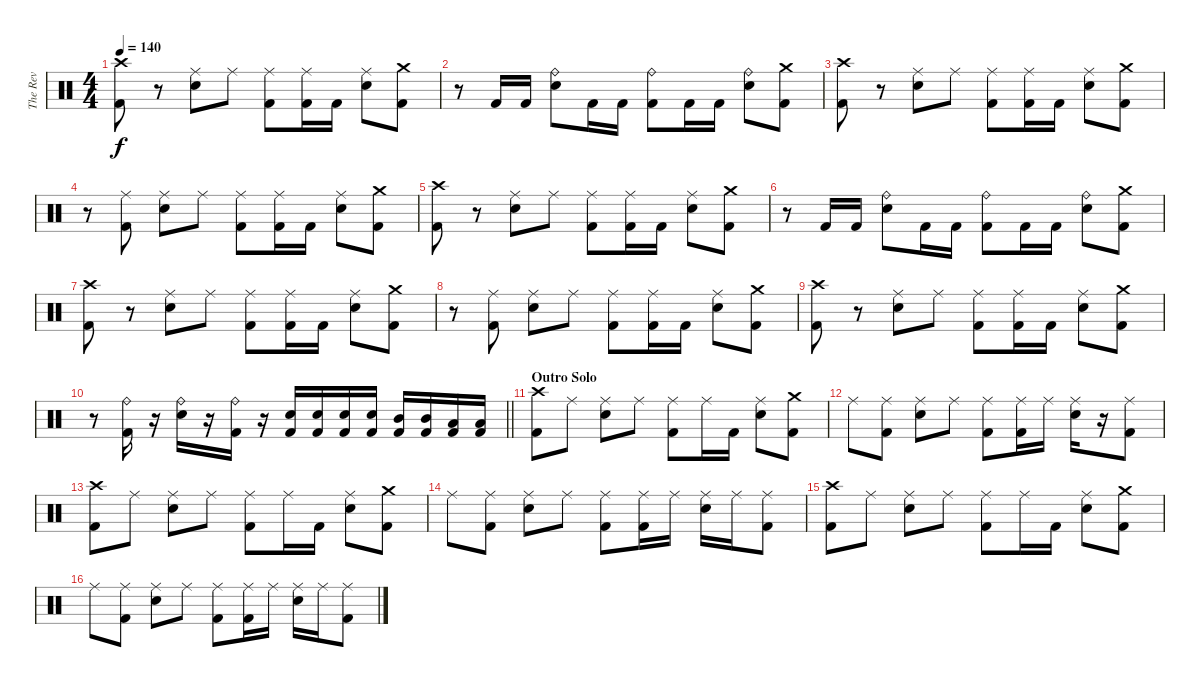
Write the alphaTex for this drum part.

\track ("The Rev" "The Rev") {instrument percussion}
\staff {score}
\articulation defaults
\ts (4 4)
\tempo 140
\clef neutral
\ks c
("Crash high (hit)" "Kick (hit) 2").8{dy f} r.8 ("Ride (middle)" "Electric Snare (hit)").8 "Ride (middle)".8 ("Ride (middle)" "Kick (hit) 2").8 ("Ride (middle)" "Kick (hit) 2").16 "Kick (hit) 2".16 ("Ride (middle)" "Electric Snare (hit)").8 ("Crash medium (hit)" "Kick (hit) 2").8 |
r.8 "Kick (hit) 2".16 "Kick (hit) 2".16 ("Ride (bell)" "Electric Snare (hit)").8 "Kick (hit) 2".16 "Kick (hit) 2".16 ("Ride (bell)" "Kick (hit) 2").8 "Kick (hit) 2".16 "Kick (hit) 2".16 ("Ride (bell)" "Electric Snare (hit)").8 ("Crash medium (hit)" "Kick (hit) 2").8 |
("Crash high (hit)" "Kick (hit) 2").8 r.8 ("Ride (middle)" "Electric Snare (hit)").8 "Ride (middle)".8 ("Ride (middle)" "Kick (hit) 2").8 ("Ride (middle)" "Kick (hit) 2").16 "Kick (hit) 2".16 ("Ride (middle)" "Electric Snare (hit)").8 ("Crash medium (hit)" "Kick (hit) 2").8 |
r.8 ("Ride (middle)" "Kick (hit) 2").8 ("Ride (middle)" "Electric Snare (hit)").8 "Ride (middle)".8 ("Ride (middle)" "Kick (hit) 2").8 ("Ride (middle)" "Kick (hit) 2").16 "Kick (hit) 2".16 ("Ride (middle)" "Electric Snare (hit)").8 ("Crash medium (hit)" "Kick (hit) 2").8 |
("Crash high (hit)" "Kick (hit) 2").8 r.8 ("Ride (middle)" "Electric Snare (hit)").8 "Ride (middle)".8 ("Ride (middle)" "Kick (hit) 2").8 ("Ride (middle)" "Kick (hit) 2").16 "Kick (hit) 2".16 ("Ride (middle)" "Electric Snare (hit)").8 ("Crash medium (hit)" "Kick (hit) 2").8 |
r.8 "Kick (hit) 2".16 "Kick (hit) 2".16 ("Ride (bell)" "Electric Snare (hit)").8 "Kick (hit) 2".16 "Kick (hit) 2".16 ("Ride (bell)" "Kick (hit) 2").8 "Kick (hit) 2".16 "Kick (hit) 2".16 ("Ride (bell)" "Electric Snare (hit)").8 ("Crash medium (hit)" "Kick (hit) 2").8 |
("Crash high (hit)" "Kick (hit) 2").8 r.8 ("Ride (middle)" "Electric Snare (hit)").8 "Ride (middle)".8 ("Ride (middle)" "Kick (hit) 2").8 ("Ride (middle)" "Kick (hit) 2").16 "Kick (hit) 2".16 ("Ride (middle)" "Electric Snare (hit)").8 ("Crash medium (hit)" "Kick (hit) 2").8 |
r.8 ("Ride (middle)" "Kick (hit) 2").8 ("Ride (middle)" "Electric Snare (hit)").8 "Ride (middle)".8 ("Ride (middle)" "Kick (hit) 2").8 ("Ride (middle)" "Kick (hit) 2").16 "Kick (hit) 2".16 ("Ride (middle)" "Electric Snare (hit)").8 ("Crash medium (hit)" "Kick (hit) 2").8 |
("Crash high (hit)" "Kick (hit) 2").8 r.8 ("Ride (middle)" "Electric Snare (hit)").8 "Ride (middle)".8 ("Ride (middle)" "Kick (hit) 2").8 ("Ride (middle)" "Kick (hit) 2").16 "Kick (hit) 2".16 ("Ride (middle)" "Electric Snare (hit)").8 ("Crash medium (hit)" "Kick (hit) 2").8 |
\barLineRight lightlight
r.8 ("Ride (bell)" "Kick (hit) 2").16 r.16 ("Ride (bell)" "Electric Snare (hit)").16 r.16 ("Ride (bell)" "Kick (hit) 2").16 r.16 ("Electric Snare (hit)" "Kick (hit) 2").16 ("Electric Snare (hit)" "Kick (hit) 2").16 ("Electric Snare (hit)" "Kick (hit) 2").16 ("Electric Snare (hit)" "Kick (hit) 2").16 ("Mid Tom (hit)" "Kick (hit) 2").16 ("Mid Tom (hit)" "Kick (hit) 2").16 ("Low Tom (hit)" "Kick (hit) 2").16 ("Low Tom (hit)" "Kick (hit) 2").16 |
\section ("" "Outro Solo")
("Crash high (hit)" "Kick (hit) 2").8 "Ride (middle)".8 ("Ride (middle)" "Electric Snare (hit)").8 "Ride (middle)".8 ("Ride (middle)" "Kick (hit) 2").8 "Ride (middle)".16 "Kick (hit) 2".16 ("Ride (middle)" "Electric Snare (hit)").8 ("Crash medium (hit)" "Kick (hit) 2").8 |
"Ride (middle)".8 ("Ride (middle)" "Kick (hit) 2").8 ("Ride (middle)" "Electric Snare (hit)").8 "Ride (middle)".8 ("Ride (middle)" "Kick (hit) 2").8 ("Ride (middle)" "Kick (hit) 2").16 "Ride (middle)".16 ("Ride (middle)" "Electric Snare (hit)").16 r.16 ("Ride (middle)" "Kick (hit) 2").8 |
("Crash high (hit)" "Kick (hit) 2").8 "Ride (middle)".8 ("Ride (middle)" "Electric Snare (hit)").8 "Ride (middle)".8 ("Ride (middle)" "Kick (hit) 2").8 "Ride (middle)".16 "Kick (hit) 2".16 ("Ride (middle)" "Electric Snare (hit)").8 ("Crash medium (hit)" "Kick (hit) 2").8 |
"Ride (middle)".8 ("Ride (middle)" "Kick (hit) 2").8 ("Ride (middle)" "Electric Snare (hit)").8 "Ride (middle)".8 ("Ride (middle)" "Kick (hit) 2").8 ("Ride (middle)" "Kick (hit) 2").16 "Ride (middle)".16 ("Ride (middle)" "Electric Snare (hit)").16 "Ride (middle)".16 ("Ride (middle)" "Kick (hit) 2").8 |
("Crash high (hit)" "Kick (hit) 2").8 "Ride (middle)".8 ("Ride (middle)" "Electric Snare (hit)").8 "Ride (middle)".8 ("Ride (middle)" "Kick (hit) 2").8 "Ride (middle)".16 "Kick (hit) 2".16 ("Ride (middle)" "Electric Snare (hit)").8 ("Crash medium (hit)" "Kick (hit) 2").8 |
"Ride (middle)".8 ("Ride (middle)" "Kick (hit) 2").8 ("Ride (middle)" "Electric Snare (hit)").8 "Ride (middle)".8 ("Ride (middle)" "Kick (hit) 2").8 ("Ride (middle)" "Kick (hit) 2").16 "Ride (middle)".16 ("Ride (middle)" "Electric Snare (hit)").16 "Ride (middle)".16 ("Ride (middle)" "Kick (hit) 2").8
